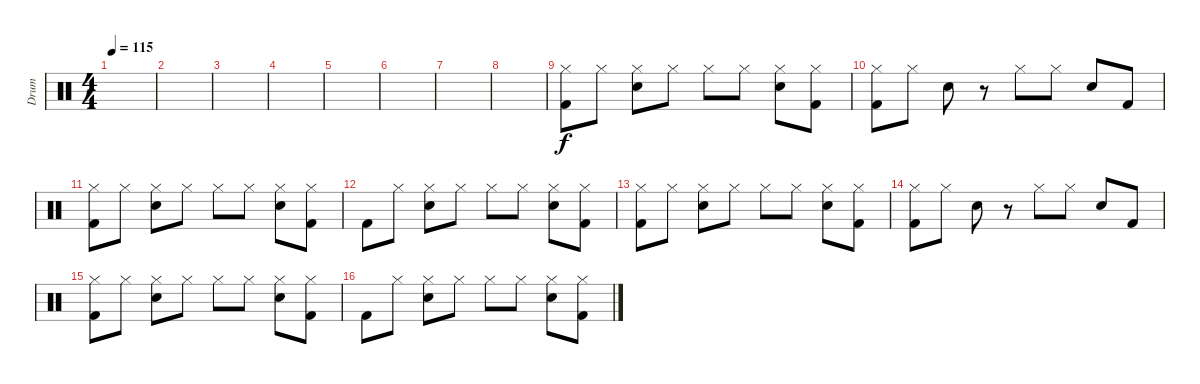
\track ("Drum" "Drum") {instrument percussion}
\staff {score}
\articulation defaults
\ts (4 4)
\tempo 115
\clef neutral
\ks c
|
|
|
|
|
|
|
|
("Hi-Hat (closed)" "Kick (hit) 2").8 "Hi-Hat (closed)".8 ("Hi-Hat (closed)" "Snare (hit) 2").8 "Hi-Hat (closed)".8 "Hi-Hat (closed)".8 "Hi-Hat (closed)".8 ("Hi-Hat (closed)" "Snare (hit) 2").8 ("Hi-Hat (closed)" "Kick (hit) 2").8 |
("Hi-Hat (closed)" "Kick (hit) 2").8 "Hi-Hat (closed)".8 "Snare (hit) 2".8 r.8 "Hi-Hat (closed)".8 "Hi-Hat (closed)".8 "Snare (hit) 2".8 "Kick (hit) 2".8 |
("Hi-Hat (closed)" "Kick (hit) 2").8 "Hi-Hat (closed)".8 ("Hi-Hat (closed)" "Snare (hit) 2").8 "Hi-Hat (closed)".8 "Hi-Hat (closed)".8 "Hi-Hat (closed)".8 ("Hi-Hat (closed)" "Snare (hit) 2").8 ("Hi-Hat (closed)" "Kick (hit) 2").8 |
"Kick (hit) 2".8 "Hi-Hat (closed)".8 ("Hi-Hat (closed)" "Snare (hit) 2").8 "Hi-Hat (closed)".8 "Hi-Hat (closed)".8 "Hi-Hat (closed)".8 ("Hi-Hat (closed)" "Snare (hit) 2").8 ("Hi-Hat (closed)" "Kick (hit) 2").8 |
("Hi-Hat (closed)" "Kick (hit) 2").8 "Hi-Hat (closed)".8 ("Hi-Hat (closed)" "Snare (hit) 2").8 "Hi-Hat (closed)".8 "Hi-Hat (closed)".8 "Hi-Hat (closed)".8 ("Hi-Hat (closed)" "Snare (hit) 2").8 ("Hi-Hat (closed)" "Kick (hit) 2").8 |
("Hi-Hat (closed)" "Kick (hit) 2").8 "Hi-Hat (closed)".8 "Snare (hit) 2".8 r.8 "Hi-Hat (closed)".8 "Hi-Hat (closed)".8 "Snare (hit) 2".8 "Kick (hit) 2".8 |
("Hi-Hat (closed)" "Kick (hit) 2").8 "Hi-Hat (closed)".8 ("Hi-Hat (closed)" "Snare (hit) 2").8 "Hi-Hat (closed)".8 "Hi-Hat (closed)".8 "Hi-Hat (closed)".8 ("Hi-Hat (closed)" "Snare (hit) 2").8 ("Hi-Hat (closed)" "Kick (hit) 2").8 |
"Kick (hit) 2".8 "Hi-Hat (closed)".8 ("Hi-Hat (closed)" "Snare (hit) 2").8 "Hi-Hat (closed)".8 "Hi-Hat (closed)".8 "Hi-Hat (closed)".8 ("Hi-Hat (closed)" "Snare (hit) 2").8 ("Hi-Hat (closed)" "Kick (hit) 2").8
